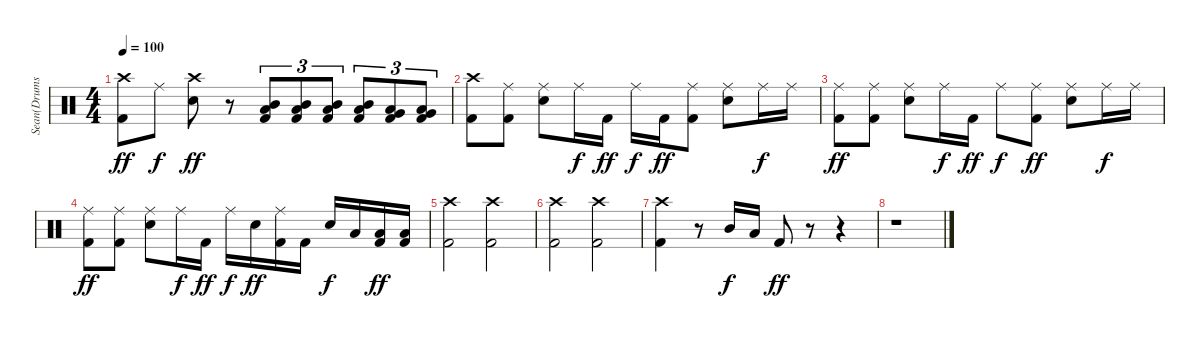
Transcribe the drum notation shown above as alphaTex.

\track ("Sean(Drums)" "Sean(Drums") {instrument percussion}
\staff {score}
\articulation defaults
\ts (4 4)
\tempo 100
\clef neutral
\ks c
("Crash high (hit)" "Kick (hit) 2").8{dy ff} "Ride (middle)".8{dy f} ("Crash high (hit)" "Electric Snare (hit)").8{dy ff} r.8 ("Mid Tom (hit)" "Low Floor Tom (hit)" "Kick (hit) 2").8{tu (3 2)} ("Mid Tom (hit)" "Low Floor Tom (hit)" "Kick (hit) 2").8{tu (3 2)} ("Mid Tom (hit)" "Low Floor Tom (hit)" "Kick (hit) 2").8{tu (3 2)} ("Mid Tom (hit)" "Low Floor Tom (hit)" "Kick (hit) 2").8{tu (3 2)} ("Very Low Tom (hit)" "Low Floor Tom (hit)" "Kick (hit) 2").8{tu (3 2)} ("Very Low Tom (hit)" "Low Floor Tom (hit)" "Kick (hit) 2").8{tu (3 2)} |
("Crash high (hit)" "Kick (hit) 2").8 ("Ride (middle)" "Kick (hit) 2").8 ("Ride (middle)" "Electric Snare (hit)").8 "Ride (middle)".16{dy f} "Kick (hit) 2".16{dy ff} "Ride (middle)".16{dy f} "Kick (hit) 2".16{dy ff} ("Ride (middle)" "Kick (hit) 2").8 ("Ride (middle)" "Electric Snare (hit)").8 "Ride (middle)".16{dy f} "Ride (middle)".16 |
("Ride (middle)" "Kick (hit) 2").8{dy ff} ("Ride (middle)" "Kick (hit) 2").8 ("Ride (middle)" "Electric Snare (hit)").8 "Ride (middle)".16{dy f} "Kick (hit) 2".16{dy ff} "Ride (middle)".8{dy f} ("Ride (middle)" "Kick (hit) 2").8{dy ff} ("Ride (middle)" "Electric Snare (hit)").8 "Ride (middle)".16{dy f} "Ride (middle)".16 |
("Ride (middle)" "Kick (hit) 2").8{dy ff} ("Ride (middle)" "Kick (hit) 2").8 ("Ride (middle)" "Electric Snare (hit)").8 "Ride (middle)".16{dy f} "Kick (hit) 2".16{dy ff} "Ride (middle)".16{dy f} "Electric Snare (hit)".16{dy ff} ("Ride (middle)" "Kick (hit) 2").16 "Kick (hit) 2".16 "Electric Snare (hit)".16{dy f} "Low Floor Tom (hit)".16 ("Low Floor Tom (hit)" "Kick (hit) 2").16{dy ff} ("Low Floor Tom (hit)" "Kick (hit) 2").16 |
("Crash high (hit)" "Kick (hit) 2").2 ("Crash high (hit)" "Kick (hit) 2").2 |
("Crash high (hit)" "Kick (hit) 2").2 ("Crash high (hit)" "Kick (hit) 2").2 |
("Crash high (hit)" "Kick (hit) 2").4 r.8 "Mid Tom (hit)".16{dy f} "Low Floor Tom (hit)".16 "Kick (hit) 2".8{dy ff} r.8 r.4 |
r.1
